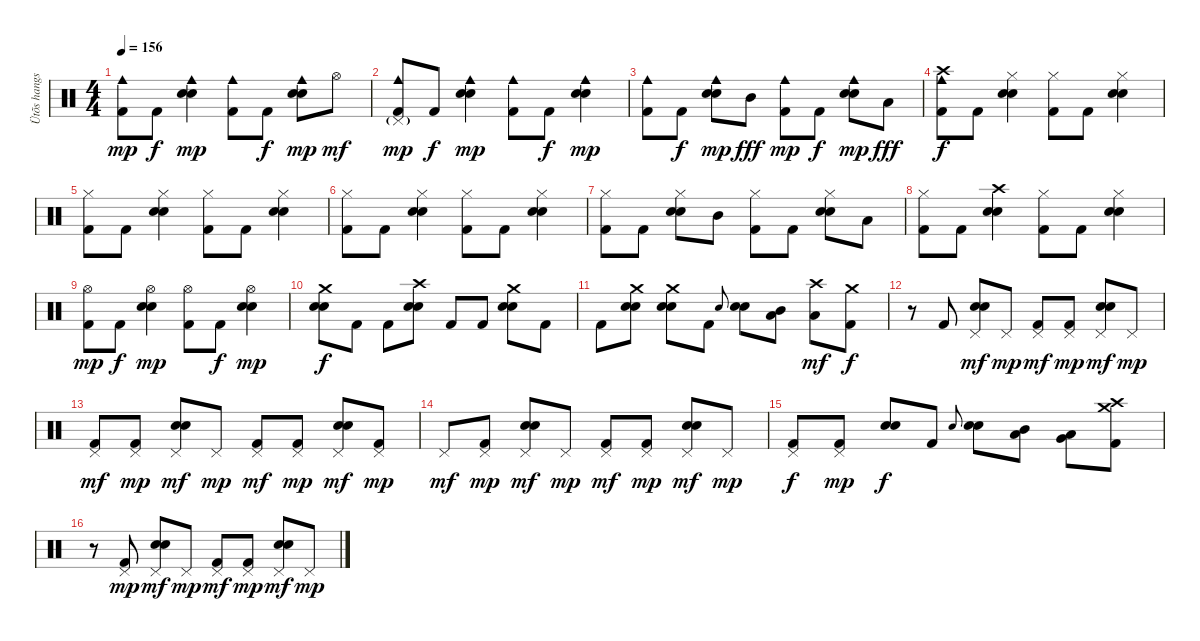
\track ("Ütõs hangszer" "Ütõs hangs") {instrument percussion}
\staff {score}
\articulation defaults
\ts (4 4)
\tempo 156
\clef neutral
\ks c
("Cowbell medium (hit)" "Kick (hit) 2").8{dy mp} "Kick (hit) 2".8{dy f} ("Cowbell medium (hit)" "Snare (hit) 2" "Electric Snare (hit)").4{dy mp} ("Cowbell medium (hit)" "Kick (hit) 2").8 "Kick (hit) 2".8{dy f} ("Cowbell medium (hit)" "Snare (hit) 2" "Electric Snare (hit)").8{dy mp} "Hi-Hat (open)".8{dy mf} |
("Cowbell medium (hit)" "Pedal Hi-Hat (hit)"{g} "Kick (hit) 2").8{dy mp} "Kick (hit) 2".8{dy f} ("Cowbell medium (hit)" "Snare (hit) 2" "Electric Snare (hit)").4{dy mp} ("Cowbell medium (hit)" "Kick (hit) 2").8 "Kick (hit) 2".8{dy f} ("Cowbell medium (hit)" "Snare (hit) 2" "Electric Snare (hit)").4{dy mp} |
("Cowbell medium (hit)" "Kick (hit) 2").8 "Kick (hit) 2".8{dy f} ("Cowbell medium (hit)" "Snare (hit) 2" "Electric Snare (hit)").8{dy mp} "Mid Tom (hit)".8{dy fff} ("Cowbell medium (hit)" "Kick (hit) 2").8{dy mp} "Kick (hit) 2".8{dy f} ("Cowbell medium (hit)" "Snare (hit) 2" "Electric Snare (hit)").8{dy mp} "Low Tom (hit)".8{dy fff} |
("Crash high (hit)" "Cowbell medium (hit)" "Kick (hit) 2").8{dy f} "Kick (hit) 2".8 ("Hi-Hat (closed)" "Snare (hit) 2" "Electric Snare (hit)").4 ("Hi-Hat (closed)" "Kick (hit) 2").8 "Kick (hit) 2".8 ("Hi-Hat (closed)" "Snare (hit) 2" "Electric Snare (hit)").4 |
("Hi-Hat (closed)" "Kick (hit) 2").8 "Kick (hit) 2".8 ("Hi-Hat (closed)" "Snare (hit) 2" "Electric Snare (hit)").4 ("Hi-Hat (closed)" "Kick (hit) 2").8 "Kick (hit) 2".8 ("Hi-Hat (closed)" "Snare (hit) 2" "Electric Snare (hit)").4 |
("Hi-Hat (closed)" "Kick (hit) 2").8 "Kick (hit) 2".8 ("Hi-Hat (closed)" "Snare (hit) 2" "Electric Snare (hit)").4 ("Hi-Hat (closed)" "Kick (hit) 2").8 "Kick (hit) 2".8 ("Hi-Hat (closed)" "Snare (hit) 2" "Electric Snare (hit)").4 |
("Hi-Hat (closed)" "Kick (hit) 2").8 "Kick (hit) 2".8 ("Hi-Hat (closed)" "Snare (hit) 2" "Electric Snare (hit)").8 "Mid Tom (hit)".8 ("Hi-Hat (closed)" "Kick (hit) 2").8 "Kick (hit) 2".8 ("Hi-Hat (closed)" "Snare (hit) 2" "Electric Snare (hit)").8 "Low Tom (hit)".8 |
("Hi-Hat (closed)" "Kick (hit) 2").8 "Kick (hit) 2".8 ("Crash high (hit)" "Snare (hit) 2" "Electric Snare (hit)").4 ("Hi-Hat (closed)" "Kick (hit) 2").8 "Kick (hit) 2".8 ("Hi-Hat (closed)" "Snare (hit) 2" "Electric Snare (hit)").4 |
("Hi-Hat (open)" "Kick (hit) 2").8{dy mp} "Kick (hit) 2".8{dy f} ("Hi-Hat (open)" "Snare (hit) 2" "Electric Snare (hit)").4{dy mp} ("Hi-Hat (open)" "Kick (hit) 2").8 "Kick (hit) 2".8{dy f} ("Hi-Hat (open)" "Snare (hit) 2" "Electric Snare (hit)").4{dy mp} |
("Crash medium (hit)" "Snare (hit) 2" "Electric Snare (hit)").8{dy f} "Kick (hit) 2".8 "Kick (hit) 2".8 ("Crash high (hit)" "Snare (hit) 2" "Electric Snare (hit)").8 "Kick (hit) 2".8 "Kick (hit) 2".8 ("Crash medium (hit)" "Snare (hit) 2" "Electric Snare (hit)").8 "Kick (hit) 2".8 |
"Kick (hit) 2".8 ("Crash medium (hit)" "Snare (hit) 2" "Electric Snare (hit)").8 ("Crash medium (hit)" "Snare (hit) 2" "Electric Snare (hit)").8 "Kick (hit) 2".8 "Electric Snare (hit)".8{gr onbeat} ("Snare (hit) 2" "Electric Snare (hit)").8 ("Mid Tom (hit)" "Low Tom (hit)").8 ("Crash high (hit)" "Low Tom (hit)").8{dy mf} ("Crash medium (hit)" "Kick (hit) 2").8{dy f} |
r.8 "Kick (hit) 2".8 ("Pedal Hi-Hat (hit)" "Snare (hit) 2" "Electric Snare (hit)").8{dy mf} "Pedal Hi-Hat (hit)".8{dy mp} ("Pedal Hi-Hat (hit)" "Kick (hit) 2").8{dy mf} ("Pedal Hi-Hat (hit)" "Kick (hit) 2").8{dy mp} ("Pedal Hi-Hat (hit)" "Snare (hit) 2" "Electric Snare (hit)").8{dy mf} "Pedal Hi-Hat (hit)".8{dy mp} |
("Pedal Hi-Hat (hit)" "Kick (hit) 2").8{dy mf} ("Pedal Hi-Hat (hit)" "Kick (hit) 2").8{dy mp} ("Pedal Hi-Hat (hit)" "Snare (hit) 2" "Electric Snare (hit)").8{dy mf} "Pedal Hi-Hat (hit)".8{dy mp} ("Pedal Hi-Hat (hit)" "Kick (hit) 2").8{dy mf} ("Pedal Hi-Hat (hit)" "Kick (hit) 2").8{dy mp} ("Pedal Hi-Hat (hit)" "Snare (hit) 2" "Electric Snare (hit)").8{dy mf} ("Pedal Hi-Hat (hit)" "Kick (hit) 2").8{dy mp} |
"Pedal Hi-Hat (hit)".8{dy mf} ("Pedal Hi-Hat (hit)" "Kick (hit) 2").8{dy mp} ("Pedal Hi-Hat (hit)" "Snare (hit) 2" "Electric Snare (hit)").8{dy mf} "Pedal Hi-Hat (hit)".8{dy mp} ("Pedal Hi-Hat (hit)" "Kick (hit) 2").8{dy mf} ("Pedal Hi-Hat (hit)" "Kick (hit) 2").8{dy mp} ("Pedal Hi-Hat (hit)" "Snare (hit) 2" "Electric Snare (hit)").8{dy mf} "Pedal Hi-Hat (hit)".8{dy mp} |
("Pedal Hi-Hat (hit)" "Kick (hit) 2").8{dy f} ("Pedal Hi-Hat (hit)" "Kick (hit) 2").8{dy mp} ("Snare (hit) 2" "Electric Snare (hit)").8{dy f} "Kick (hit) 2".8 "Electric Snare (hit)".8{gr onbeat} ("Snare (hit) 2" "Electric Snare (hit)").8 ("Mid Tom (hit)" "Low Tom (hit)").8 ("Low Tom (hit)" "Very Low Tom (hit)").8 ("Crash high (hit)" "Crash medium (hit)" "Kick (hit) 2").8 |
r.8 ("Pedal Hi-Hat (hit)" "Kick (hit) 2").8{dy mp} ("Pedal Hi-Hat (hit)" "Snare (hit) 2" "Electric Snare (hit)").8{dy mf} "Pedal Hi-Hat (hit)".8{dy mp} ("Pedal Hi-Hat (hit)" "Kick (hit) 2").8{dy mf} ("Pedal Hi-Hat (hit)" "Kick (hit) 2").8{dy mp} ("Pedal Hi-Hat (hit)" "Snare (hit) 2" "Electric Snare (hit)").8{dy mf} "Pedal Hi-Hat (hit)".8{dy mp}
